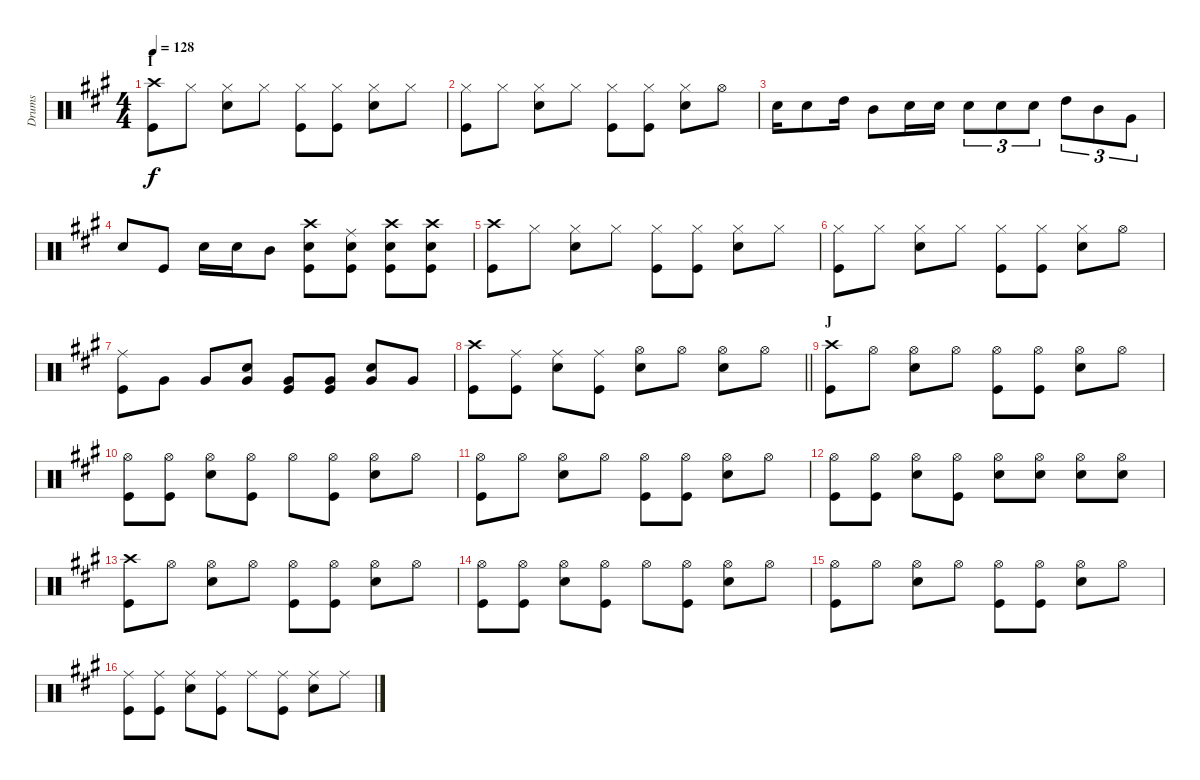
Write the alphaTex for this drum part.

\track ("Drums" "Drums") {instrument percussion}
\staff {score}
\articulation defaults
\ts (4 4)
\section ("" "I")
\tempo 128
\clef neutral
\ks a
("Crash high (hit)" "Kick (hit)").8{dy f} "Hi-Hat (closed)".8 ("Hi-Hat (closed)" "Snare (hit) 2").8 "Hi-Hat (closed)".8 ("Hi-Hat (closed)" "Kick (hit)").8 ("Hi-Hat (closed)" "Kick (hit)").8 ("Hi-Hat (closed)" "Snare (hit) 2").8 "Hi-Hat (closed)".8 |
("Hi-Hat (closed)" "Kick (hit)").8 "Hi-Hat (closed)".8 ("Hi-Hat (closed)" "Snare (hit) 2").8 "Hi-Hat (closed)".8 ("Hi-Hat (closed)" "Kick (hit)").8 ("Hi-Hat (closed)" "Kick (hit)").8 ("Hi-Hat (closed)" "Snare (hit) 2").8 "Hi-Hat (open)".8 |
"Snare (hit) 2".16 "Snare (hit) 2".8 "High Tom (hit)".16 "Mid Tom (hit)".8 "Snare (hit) 2".16 "Snare (hit) 2".16 "Snare (hit) 2".8{tu (3 2)} "Snare (hit) 2".8{tu (3 2)} "Snare (hit) 2".8{tu (3 2)} "High Tom (hit)".8{tu (3 2)} "Mid Tom (hit)".8{tu (3 2)} "Very Low Tom (hit)".8{tu (3 2)} |
"Snare (hit) 2".8 "Kick (hit)".8 "Snare (hit) 2".16 "Snare (hit) 2".16 "Mid Tom (hit)".8 ("Crash high (hit)" "Snare (hit) 2" "Kick (hit)").8 ("Ride (middle)" "Snare (hit) 2" "Kick (hit)").8 ("Crash high (hit)" "Snare (hit) 2" "Kick (hit)").8 ("Crash high (hit)" "Snare (hit) 2" "Kick (hit)").8 |
("Crash high (hit)" "Kick (hit)").8 "Hi-Hat (closed)".8 ("Hi-Hat (closed)" "Snare (hit) 2").8 "Hi-Hat (closed)".8 ("Hi-Hat (closed)" "Kick (hit)").8 ("Hi-Hat (closed)" "Kick (hit)").8 ("Hi-Hat (closed)" "Snare (hit) 2").8 "Hi-Hat (closed)".8 |
("Hi-Hat (closed)" "Kick (hit)").8 "Hi-Hat (closed)".8 ("Hi-Hat (closed)" "Snare (hit) 2").8 "Hi-Hat (closed)".8 ("Hi-Hat (closed)" "Kick (hit)").8 ("Hi-Hat (closed)" "Kick (hit)").8 ("Hi-Hat (closed)" "Snare (hit) 2").8 "Hi-Hat (open)".8 |
("Ride (middle)" "Kick (hit)").8 "Very Low Tom (hit)".8 "Very Low Tom (hit)".8 ("Snare (hit) 2" "Very Low Tom (hit)").8 ("Very Low Tom (hit)" "Kick (hit)").8 ("Very Low Tom (hit)" "Kick (hit)").8 ("Snare (hit) 2" "Very Low Tom (hit)").8 "Very Low Tom (hit)".8 |
\barLineRight lightlight
("Crash high (hit)" "Kick (hit)").8 ("Ride (middle)" "Kick (hit)").8 ("Ride (middle)" "Snare (hit) 2").8 ("Ride (middle)" "Kick (hit)").8 ("Hi-Hat (open)" "Snare (hit) 2").8 "Hi-Hat (open)".8 ("Hi-Hat (open)" "Snare (hit) 2").8 "Hi-Hat (open)".8 |
\section ("" "J")
("Crash high (hit)" "Kick (hit)").8 "Hi-Hat (open)".8 ("Hi-Hat (open)" "Snare (hit) 2").8 "Hi-Hat (open)".8 ("Hi-Hat (open)" "Kick (hit)").8 ("Hi-Hat (open)" "Kick (hit)").8 ("Hi-Hat (open)" "Snare (hit) 2").8 "Hi-Hat (open)".8 |
("Hi-Hat (open)" "Kick (hit)").8 ("Hi-Hat (open)" "Kick (hit)").8 ("Hi-Hat (open)" "Snare (hit) 2").8 ("Hi-Hat (open)" "Kick (hit)").8 "Hi-Hat (open)".8 ("Hi-Hat (open)" "Kick (hit)").8 ("Hi-Hat (open)" "Snare (hit) 2").8 "Hi-Hat (open)".8 |
("Hi-Hat (open)" "Kick (hit)").8 "Hi-Hat (open)".8 ("Hi-Hat (open)" "Snare (hit) 2").8 "Hi-Hat (open)".8 ("Hi-Hat (open)" "Kick (hit)").8 ("Hi-Hat (open)" "Kick (hit)").8 ("Hi-Hat (open)" "Snare (hit) 2").8 "Hi-Hat (open)".8 |
("Hi-Hat (open)" "Kick (hit)").8 ("Hi-Hat (open)" "Kick (hit)").8 ("Hi-Hat (open)" "Snare (hit) 2").8 ("Hi-Hat (open)" "Kick (hit)").8 ("Hi-Hat (open)" "Snare (hit) 2").8 ("Hi-Hat (open)" "Snare (hit) 2").8 ("Hi-Hat (open)" "Snare (hit) 2").8 ("Hi-Hat (open)" "Snare (hit) 2").8 |
("Crash high (hit)" "Kick (hit)").8 "Hi-Hat (open)".8 ("Hi-Hat (open)" "Snare (hit) 2").8 "Hi-Hat (open)".8 ("Hi-Hat (open)" "Kick (hit)").8 ("Hi-Hat (open)" "Kick (hit)").8 ("Hi-Hat (open)" "Snare (hit) 2").8 "Hi-Hat (open)".8 |
("Hi-Hat (open)" "Kick (hit)").8 ("Hi-Hat (open)" "Kick (hit)").8 ("Hi-Hat (open)" "Snare (hit) 2").8 ("Hi-Hat (open)" "Kick (hit)").8 "Hi-Hat (open)".8 ("Hi-Hat (open)" "Kick (hit)").8 ("Hi-Hat (open)" "Snare (hit) 2").8 "Hi-Hat (open)".8 |
("Hi-Hat (open)" "Kick (hit)").8 "Hi-Hat (open)".8 ("Hi-Hat (open)" "Snare (hit) 2").8 "Hi-Hat (open)".8 ("Hi-Hat (open)" "Kick (hit)").8 ("Hi-Hat (open)" "Kick (hit)").8 ("Hi-Hat (open)" "Snare (hit) 2").8 "Hi-Hat (open)".8 |
("Ride (middle)" "Kick (hit)").8 ("Ride (middle)" "Kick (hit)").8 ("Ride (middle)" "Snare (hit) 2").8 ("Ride (middle)" "Kick (hit)").8 "Ride (middle)".8 ("Ride (middle)" "Kick (hit)").8 ("Ride (middle)" "Snare (hit) 2").8 "Ride (middle)".8
